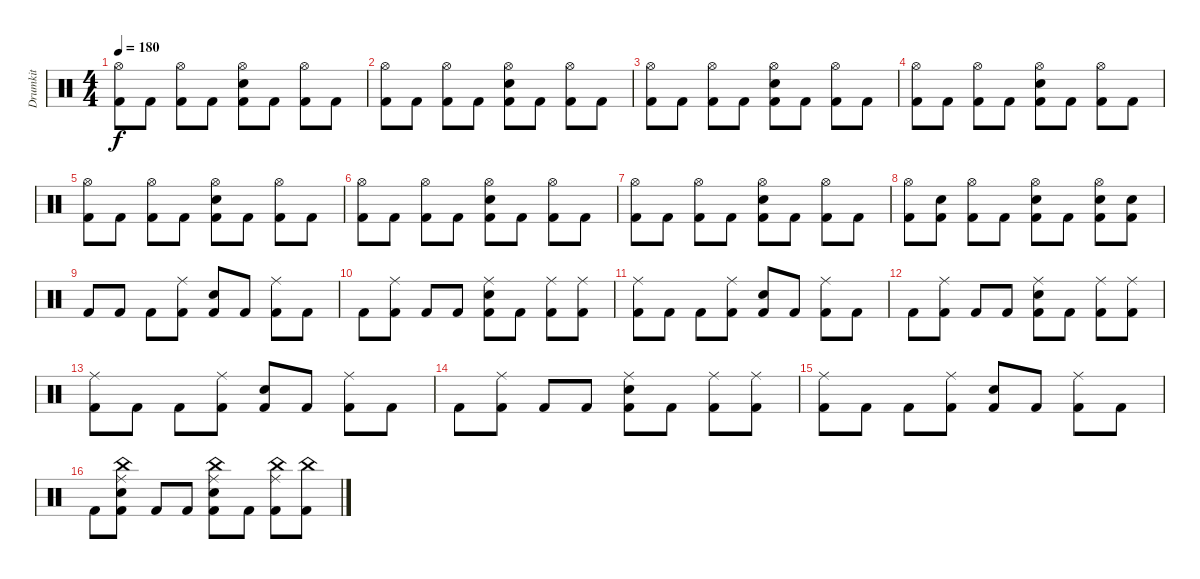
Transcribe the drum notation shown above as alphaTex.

\track ("Drumkit" "Drumkit") {instrument percussion}
\staff {score}
\articulation defaults
\ts (4 4)
\tempo 180
\clef neutral
\ks c
("Hi-Hat (open)" "Kick (hit) 2").8{dy f} "Kick (hit) 2".8 ("Hi-Hat (open)" "Kick (hit) 2").8 "Kick (hit) 2".8 ("Hi-Hat (open)" "Snare (hit) 2" "Kick (hit) 2").8 "Kick (hit) 2".8 ("Hi-Hat (open)" "Kick (hit) 2").8 "Kick (hit) 2".8 |
("Hi-Hat (open)" "Kick (hit) 2").8 "Kick (hit) 2".8 ("Hi-Hat (open)" "Kick (hit) 2").8 "Kick (hit) 2".8 ("Hi-Hat (open)" "Snare (hit) 2" "Kick (hit) 2").8 "Kick (hit) 2".8 ("Hi-Hat (open)" "Kick (hit) 2").8 "Kick (hit) 2".8 |
("Hi-Hat (open)" "Kick (hit) 2").8 "Kick (hit) 2".8 ("Hi-Hat (open)" "Kick (hit) 2").8 "Kick (hit) 2".8 ("Hi-Hat (open)" "Snare (hit) 2" "Kick (hit) 2").8 "Kick (hit) 2".8 ("Hi-Hat (open)" "Kick (hit) 2").8 "Kick (hit) 2".8 |
("Hi-Hat (open)" "Kick (hit) 2").8 "Kick (hit) 2".8 ("Hi-Hat (open)" "Kick (hit) 2").8 "Kick (hit) 2".8 ("Hi-Hat (open)" "Snare (hit) 2" "Kick (hit) 2").8 "Kick (hit) 2".8 ("Hi-Hat (open)" "Kick (hit) 2").8 "Kick (hit) 2".8 |
("Hi-Hat (open)" "Kick (hit) 2").8 "Kick (hit) 2".8 ("Hi-Hat (open)" "Kick (hit) 2").8 "Kick (hit) 2".8 ("Hi-Hat (open)" "Snare (hit) 2" "Kick (hit) 2").8 "Kick (hit) 2".8 ("Hi-Hat (open)" "Kick (hit) 2").8 "Kick (hit) 2".8 |
("Hi-Hat (open)" "Kick (hit) 2").8 "Kick (hit) 2".8 ("Hi-Hat (open)" "Kick (hit) 2").8 "Kick (hit) 2".8 ("Hi-Hat (open)" "Snare (hit) 2" "Kick (hit) 2").8 "Kick (hit) 2".8 ("Hi-Hat (open)" "Kick (hit) 2").8 "Kick (hit) 2".8 |
("Hi-Hat (open)" "Kick (hit) 2").8 "Kick (hit) 2".8 ("Hi-Hat (open)" "Kick (hit) 2").8 "Kick (hit) 2".8 ("Hi-Hat (open)" "Snare (hit) 2" "Kick (hit) 2").8 "Kick (hit) 2".8 ("Hi-Hat (open)" "Kick (hit) 2").8 "Kick (hit) 2".8 |
("Hi-Hat (open)" "Kick (hit) 2").8 ("Snare (hit) 2" "Kick (hit) 2").8 ("Hi-Hat (open)" "Kick (hit) 2").8 "Kick (hit) 2".8 ("Hi-Hat (open)" "Snare (hit) 2" "Kick (hit) 2").8 "Kick (hit) 2".8 ("Hi-Hat (open)" "Snare (hit) 2" "Kick (hit) 2").8 ("Snare (hit) 2" "Kick (hit) 2").8 |
"Kick (hit) 2".8 "Kick (hit) 2".8 "Kick (hit) 2".8 ("Ride (middle)" "Kick (hit) 2").8 ("Snare (hit) 2" "Kick (hit) 2").8 "Kick (hit) 2".8 ("Ride (middle)" "Kick (hit) 2").8 "Kick (hit) 2".8 |
"Kick (hit) 2".8 ("Ride (middle)" "Kick (hit) 2").8 "Kick (hit) 2".8 "Kick (hit) 2".8 ("Ride (middle)" "Snare (hit) 2" "Kick (hit) 2").8 "Kick (hit) 2".8 ("Ride (middle)" "Kick (hit) 2").8 ("Ride (middle)" "Kick (hit) 2").8 |
("Ride (middle)" "Kick (hit) 2").8 "Kick (hit) 2".8 "Kick (hit) 2".8 ("Ride (middle)" "Kick (hit) 2").8 ("Snare (hit) 2" "Kick (hit) 2").8 "Kick (hit) 2".8 ("Ride (middle)" "Kick (hit) 2").8 "Kick (hit) 2".8 |
"Kick (hit) 2".8 ("Ride (middle)" "Kick (hit) 2").8 "Kick (hit) 2".8 "Kick (hit) 2".8 ("Ride (middle)" "Snare (hit) 2" "Kick (hit) 2").8 "Kick (hit) 2".8 ("Ride (middle)" "Kick (hit) 2").8 ("Ride (middle)" "Kick (hit) 2").8 |
("Ride (middle)" "Kick (hit) 2").8 "Kick (hit) 2".8 "Kick (hit) 2".8 ("Ride (middle)" "Kick (hit) 2").8 ("Snare (hit) 2" "Kick (hit) 2").8 "Kick (hit) 2".8 ("Ride (middle)" "Kick (hit) 2").8 "Kick (hit) 2".8 |
"Kick (hit) 2".8 ("Ride (middle)" "Kick (hit) 2").8 "Kick (hit) 2".8 "Kick (hit) 2".8 ("Ride (middle)" "Snare (hit) 2" "Kick (hit) 2").8 "Kick (hit) 2".8 ("Ride (middle)" "Kick (hit) 2").8 ("Ride (middle)" "Kick (hit) 2").8 |
("Ride (middle)" "Kick (hit) 2").8 "Kick (hit) 2".8 "Kick (hit) 2".8 ("Ride (middle)" "Kick (hit) 2").8 ("Snare (hit) 2" "Kick (hit) 2").8 "Kick (hit) 2".8 ("Ride (middle)" "Kick (hit) 2").8 "Kick (hit) 2".8 |
"Kick (hit) 2".8 ("Ride (middle)" "Snare (hit) 2" "China (hit)" "Kick (hit) 2").8 "Kick (hit) 2".8 "Kick (hit) 2".8 ("Ride (middle)" "Snare (hit) 2" "China (hit)" "Kick (hit) 2").8 "Kick (hit) 2".8 ("Ride (middle)" "China (hit)" "Kick (hit) 2").8 ("China (hit)" "Kick (hit) 2").8
